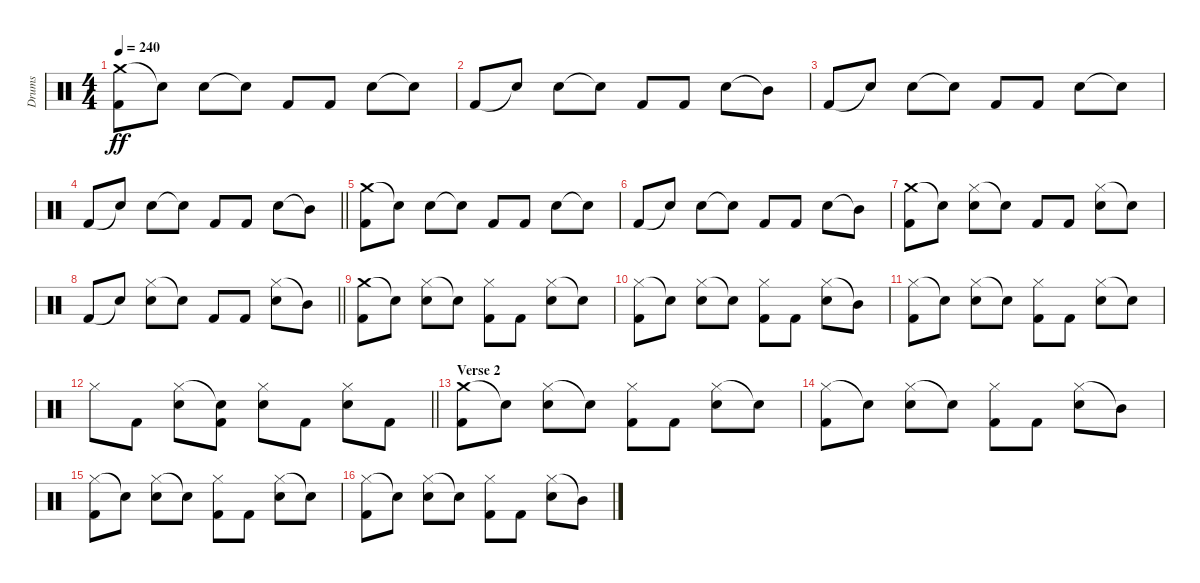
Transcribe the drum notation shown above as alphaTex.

\track ("Drums" "Drums") {instrument percussion}
\staff {score}
\articulation defaults
\ts (4 4)
\tempo 240
\clef neutral
\ks c
("Crash medium (hit)" "Kick (hit) 2").8{dy ff} "Snare (hit)"{t}.8 "Electric Snare (hit)".8 "Snare (hit)"{t}.8 "Kick (hit) 2".8 "Kick (hit) 2".8 "Electric Snare (hit)".8 "Snare (hit)"{t}.8 |
"Kick (hit) 2".8 "Snare (hit)"{t}.8 "Electric Snare (hit)".8 "Snare (hit)"{t}.8 "Kick (hit) 2".8 "Kick (hit) 2".8 "Electric Snare (hit)".8 "Mid Tom (hit)"{t}.8 |
"Kick (hit) 2".8 "Snare (hit)"{t}.8 "Electric Snare (hit)".8 "Snare (hit)"{t}.8 "Kick (hit) 2".8 "Kick (hit) 2".8 "Electric Snare (hit)".8 "Snare (hit)"{t}.8 |
\barLineRight lightlight "Kick (hit) 2".8 "Snare (hit)"{t}.8 "Electric Snare (hit)".8 "Snare (hit)"{t}.8 "Kick (hit) 2".8 "Kick (hit) 2".8 "Electric Snare (hit)".8 "Mid Tom (hit)"{t}.8
|
("Crash medium (hit)" "Kick (hit) 2").8 "Snare (hit)"{t}.8 "Electric Snare (hit)".8 "Snare (hit)"{t}.8 "Kick (hit) 2".8 "Kick (hit) 2".8 "Electric Snare (hit)".8 "Snare (hit)"{t}.8 |
"Kick (hit) 2".8 "Snare (hit)"{t}.8 "Electric Snare (hit)".8 "Snare (hit)"{t}.8 "Kick (hit) 2".8 "Kick (hit) 2".8 "Electric Snare (hit)".8 "Mid Tom (hit)"{t}.8 |
("Crash medium (hit)" "Kick (hit) 2").8 "Snare (hit)"{t}.8 ("Hi-Hat (closed)" "Electric Snare (hit)").8 "Snare (hit)"{t}.8 "Kick (hit) 2".8 "Kick (hit) 2".8 ("Hi-Hat (closed)" "Electric Snare (hit)").8 "Snare (hit)"{t}.8 |
\barLineRight lightlight "Kick (hit) 2".8 "Snare (hit)"{t}.8
("Hi-Hat (closed)" "Electric Snare (hit)").8 "Snare (hit)"{t}.8 "Kick (hit) 2".8 "Kick (hit) 2".8 ("Hi-Hat (closed)" "Electric Snare (hit)").8 "Mid Tom (hit)"{t}.8 |
("Crash medium (hit)" "Kick (hit) 2").8 "Snare (hit)"{t}.8 ("Hi-Hat (closed)" "Electric Snare (hit)").8 "Snare (hit)"{t}.8 ("Hi-Hat (closed)" "Kick (hit) 2").8 "Kick (hit) 2".8 ("Hi-Hat (closed)" "Electric Snare (hit)").8 "Snare (hit)"{t}.8 |
("Hi-Hat (closed)" "Kick (hit) 2").8 "Snare (hit)"{t}.8 ("Hi-Hat (closed)" "Electric Snare (hit)").8 "Snare (hit)"{t}.8 ("Hi-Hat (closed)" "Kick (hit) 2").8 "Kick (hit) 2".8 ("Hi-Hat (closed)" "Electric Snare (hit)").8 "Mid Tom (hit)"{t}.8 |
("Hi-Hat (closed)" "Kick (hit) 2").8 "Snare (hit)"{t}.8 ("Hi-Hat (closed)" "Electric Snare (hit)").8 "Snare (hit)"{t}.8 ("Hi-Hat (closed)" "Kick (hit) 2").8 "Kick (hit) 2".8 ("Hi-Hat (closed)" "Electric Snare (hit)").8 "Snare (hit)"{t}.8 |
\barLineRight lightlight "Hi-Hat (closed)".8 "Kick (hit) 2".8
("Hi-Hat (closed)" "Electric Snare (hit)").8 ("Snare (hit)"{t} "Kick (hit) 2").8 ("Hi-Hat (closed)" "Electric Snare (hit)").8 "Kick (hit) 2".8 ("Hi-Hat (closed)" "Electric Snare (hit)").8 "Kick (hit) 2".8 |
\section ("" "Verse 2")
("Crash medium (hit)" "Kick (hit) 2").8 "Snare (hit)"{t}.8 ("Hi-Hat (closed)" "Electric Snare (hit)").8 "Snare (hit)"{t}.8 ("Hi-Hat (closed)" "Kick (hit) 2").8 "Kick (hit) 2".8 ("Hi-Hat (closed)" "Electric Snare (hit)").8 "Snare (hit)"{t}.8 |
("Hi-Hat (closed)" "Kick (hit) 2").8 "Snare (hit)"{t}.8 ("Hi-Hat (closed)" "Electric Snare (hit)").8 "Snare (hit)"{t}.8 ("Hi-Hat (closed)" "Kick (hit) 2").8 "Kick (hit) 2".8 ("Hi-Hat (closed)" "Electric Snare (hit)").8 "Mid Tom (hit)"{t}.8 |
("Hi-Hat (closed)" "Kick (hit) 2").8 "Snare (hit)"{t}.8 ("Hi-Hat (closed)" "Electric Snare (hit)").8 "Snare (hit)"{t}.8 ("Hi-Hat (closed)" "Kick (hit) 2").8 "Kick (hit) 2".8 ("Hi-Hat (closed)" "Electric Snare (hit)").8 "Snare (hit)"{t}.8 |
("Hi-Hat (closed)" "Kick (hit) 2").8 "Snare (hit)"{t}.8 ("Hi-Hat (closed)" "Electric Snare (hit)").8 "Snare (hit)"{t}.8 ("Hi-Hat (closed)" "Kick (hit) 2").8 "Kick (hit) 2".8 ("Hi-Hat (closed)" "Electric Snare (hit)").8 "Mid Tom (hit)"{t}.8
